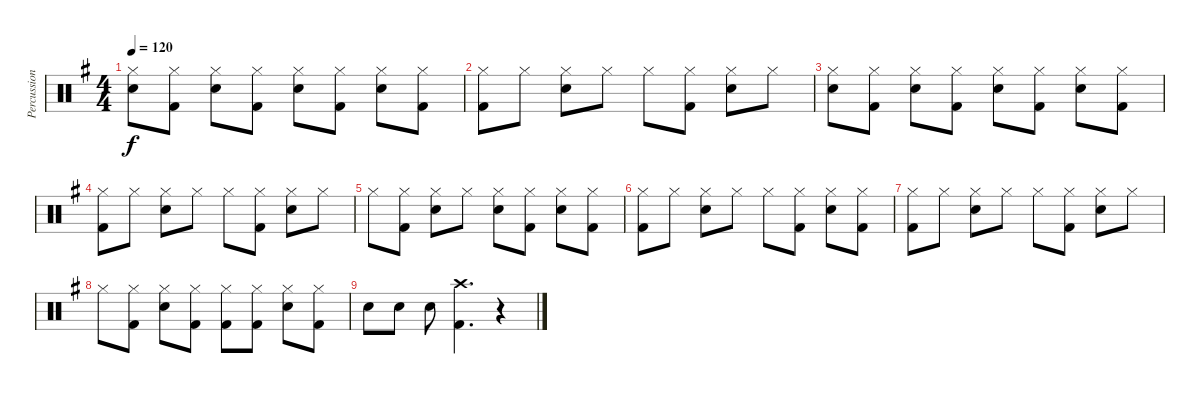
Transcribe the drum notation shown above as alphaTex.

\track ("Percussion" "Percussion") {instrument percussion}
\staff {score}
\articulation defaults
\ts (4 4)
\tempo 120
\clef neutral
\ks g
("Hi-Hat (closed)" "Snare (hit) 2").8{dy f} ("Hi-Hat (closed)" "Kick (hit) 2").8 ("Hi-Hat (closed)" "Snare (hit) 2").8 ("Hi-Hat (closed)" "Kick (hit) 2").8 ("Hi-Hat (closed)" "Snare (hit) 2").8 ("Hi-Hat (closed)" "Kick (hit) 2").8 ("Hi-Hat (closed)" "Snare (hit) 2").8 ("Hi-Hat (closed)" "Kick (hit) 2").8 |
("Hi-Hat (closed)" "Kick (hit) 2").8 "Hi-Hat (closed)".8 ("Hi-Hat (closed)" "Snare (hit) 2").8 "Hi-Hat (closed)".8 "Hi-Hat (closed)".8 ("Hi-Hat (closed)" "Kick (hit) 2").8 ("Hi-Hat (closed)" "Snare (hit) 2").8 "Hi-Hat (closed)".8 |
("Hi-Hat (closed)" "Snare (hit) 2").8 ("Hi-Hat (closed)" "Kick (hit) 2").8 ("Hi-Hat (closed)" "Snare (hit) 2").8 ("Hi-Hat (closed)" "Kick (hit) 2").8 ("Hi-Hat (closed)" "Snare (hit) 2").8 ("Hi-Hat (closed)" "Kick (hit) 2").8 ("Hi-Hat (closed)" "Snare (hit) 2").8 ("Hi-Hat (closed)" "Kick (hit) 2").8 |
("Hi-Hat (closed)" "Kick (hit) 2").8 "Hi-Hat (closed)".8 ("Hi-Hat (closed)" "Snare (hit) 2").8 "Hi-Hat (closed)".8 "Hi-Hat (closed)".8 ("Hi-Hat (closed)" "Kick (hit) 2").8 ("Hi-Hat (closed)" "Snare (hit) 2").8 "Hi-Hat (closed)".8 |
"Hi-Hat (closed)".8 ("Hi-Hat (closed)" "Kick (hit) 2").8 ("Hi-Hat (closed)" "Snare (hit) 2").8 "Hi-Hat (closed)".8 ("Hi-Hat (closed)" "Snare (hit) 2").8 ("Hi-Hat (closed)" "Kick (hit) 2").8 ("Hi-Hat (closed)" "Snare (hit) 2").8 ("Hi-Hat (closed)" "Kick (hit) 2").8 |
("Hi-Hat (closed)" "Kick (hit) 2").8 "Hi-Hat (closed)".8 ("Hi-Hat (closed)" "Snare (hit) 2").8 "Hi-Hat (closed)".8 "Hi-Hat (closed)".8 ("Hi-Hat (closed)" "Kick (hit) 2").8 ("Hi-Hat (closed)" "Snare (hit) 2").8 ("Hi-Hat (closed)" "Kick (hit) 2").8 |
("Hi-Hat (closed)" "Kick (hit) 2").8 "Hi-Hat (closed)".8 ("Hi-Hat (closed)" "Snare (hit) 2").8 "Hi-Hat (closed)".8 "Hi-Hat (closed)".8 ("Hi-Hat (closed)" "Kick (hit) 2").8 ("Hi-Hat (closed)" "Snare (hit) 2").8 "Hi-Hat (closed)".8 |
"Hi-Hat (closed)".8 ("Hi-Hat (closed)" "Kick (hit) 2").8 ("Hi-Hat (closed)" "Snare (hit) 2").8 ("Hi-Hat (closed)" "Kick (hit) 2").8 ("Hi-Hat (closed)" "Kick (hit) 2").8 ("Hi-Hat (closed)" "Kick (hit) 2").8 ("Hi-Hat (closed)" "Snare (hit) 2").8 ("Hi-Hat (closed)" "Kick (hit) 2").8 |
"Snare (hit) 2".8 "Snare (hit) 2".8 "Snare (hit) 2".8 ("Crash high (hit)" "Kick (hit) 2").4{d} r.4
